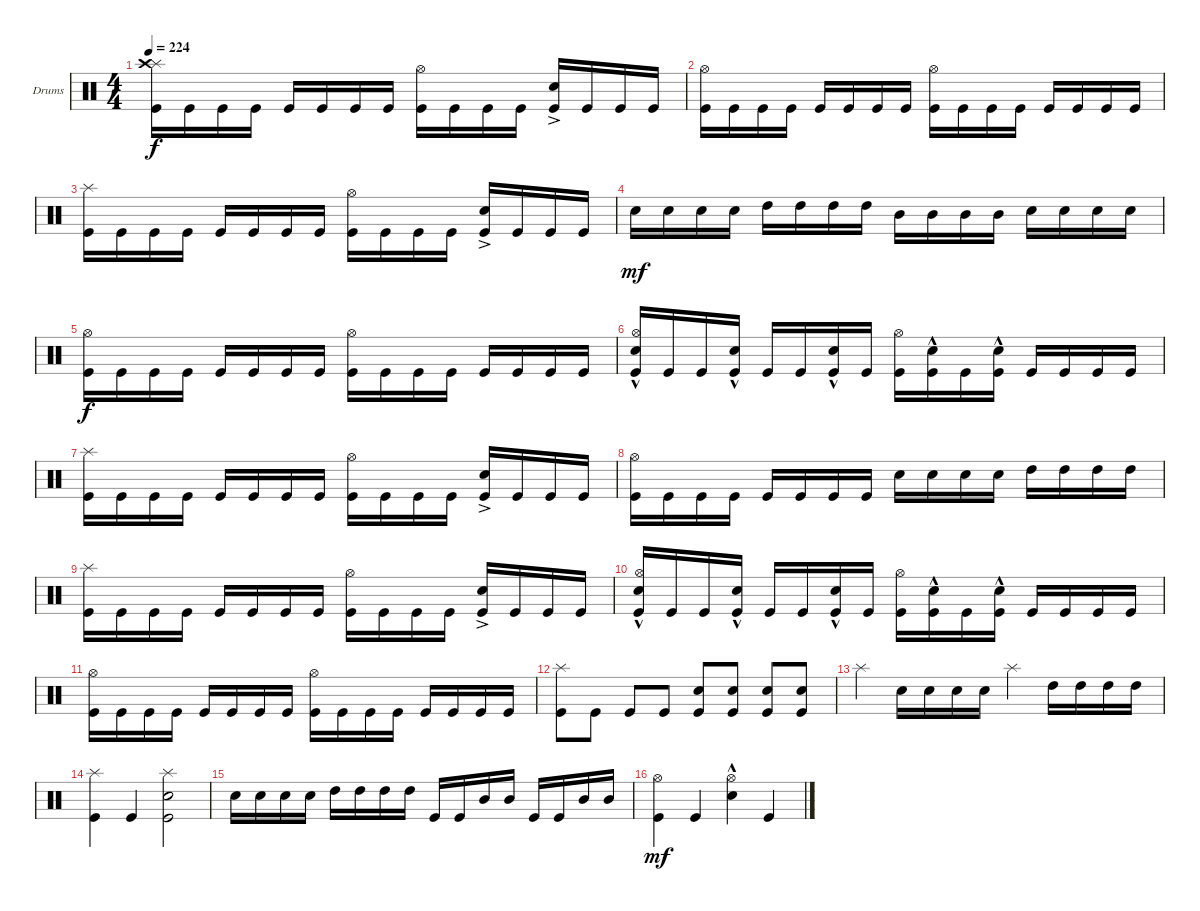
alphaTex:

\defaultSystemsLayout 4
\bracketExtendMode groupsimilarinstruments
\firstSystemTrackNameOrientation horizontal
\otherSystemsTrackNameOrientation horizontal
\track ("Drumkit" "Drums") {instrument percussion}
\staff {score}
\articulation defaults
\ts (4 4)
\tempo 224
\clef neutral
\scale
0.333333
\ks c
("Splash (hit)" "Crash high (hit)" "Kick (hit)").16{dy f} "Kick (hit)".16 "Kick (hit)".16 "Kick (hit)".16 "Kick (hit)".16 "Kick (hit)".16 "Kick (hit)".16 "Kick (hit)".16 ("Kick (hit)" "Hi-Hat (open)").16 "Kick (hit)".16 "Kick (hit)".16 "Kick (hit)".16 ("Kick (hit)" "Snare (hit) 2"{ac}).16 "Kick (hit)".16 "Kick (hit)".16 "Kick (hit)".16 |
\scale
0.333333 ("Hi-Hat (open)" "Kick (hit)").16 "Kick (hit)".16 "Kick (hit)".16 "Kick (hit)".16 "Kick (hit)".16 "Kick (hit)".16 "Kick (hit)".16 "Kick (hit)".16 ("Kick (hit)" "Hi-Hat (open)").16 "Kick (hit)".16 "Kick (hit)".16 "Kick (hit)".16 "Kick (hit)".16 "Kick (hit)".16 "Kick (hit)".16 "Kick (hit)".16 |
\scale
0.333333 ("Splash (hit)" "Kick (hit)").16 "Kick (hit)".16 "Kick (hit)".16 "Kick (hit)".16 "Kick (hit)".16 "Kick (hit)".16 "Kick (hit)".16 "Kick (hit)".16 ("Kick (hit)" "Hi-Hat (open)").16 "Kick (hit)".16 "Kick (hit)".16 "Kick (hit)".16 ("Kick (hit)" "Snare (hit) 2"{ac}).16 "Kick (hit)".16 "Kick (hit)".16 "Kick (hit)".16 |
\scale
0.333333 "Snare (hit) 2".16{dy mf} "Snare (hit) 2".16 "Snare (hit) 2".16 "Snare (hit) 2".16 "High Tom (hit)".16 "High Tom (hit)".16 "High Tom (hit)".16 "High Tom (hit)".16 "Mid Tom (hit)".16 "Mid Tom (hit)".16 "Mid Tom (hit)".16 "Mid Tom (hit)".16 "Snare (hit) 2".16 "Snare (hit) 2".16 "Snare (hit) 2".16 "Snare (hit) 2".16 |
\scale
0.333333 ("Hi-Hat (open)" "Kick (hit)").16{dy f} "Kick (hit)".16 "Kick (hit)".16 "Kick (hit)".16 "Kick (hit)".16 "Kick (hit)".16 "Kick (hit)".16 "Kick (hit)".16 ("Kick (hit)" "Hi-Hat (open)").16 "Kick (hit)".16 "Kick (hit)".16 "Kick (hit)".16 "Kick (hit)".16 "Kick (hit)".16 "Kick (hit)".16 "Kick (hit)".16 |
\scale
0.333333 ("Hi-Hat (open)" "Kick (hit)" "Snare (hit) 2"{hac}).16 "Kick (hit)".16 "Kick (hit)".16 ("Kick (hit)" "Snare (hit) 2"{hac}).16 "Kick (hit)".16 "Kick (hit)".16 ("Kick (hit)" "Snare (hit) 2"{hac}).16 "Kick (hit)".16 ("Kick (hit)" "Hi-Hat (open)").16 ("Kick (hit)" "Snare (hit) 2"{hac}).16 "Kick (hit)".16 ("Kick (hit)" "Snare (hit) 2"{hac}).16 "Kick (hit)".16 "Kick (hit)".16 "Kick (hit)".16 "Kick (hit)".16 |
\scale
0.333333 ("Splash (hit)" "Kick (hit)").16 "Kick (hit)".16 "Kick (hit)".16 "Kick (hit)".16 "Kick (hit)".16 "Kick (hit)".16 "Kick (hit)".16 "Kick (hit)".16 ("Kick (hit)" "Hi-Hat (open)").16 "Kick (hit)".16 "Kick (hit)".16 "Kick (hit)".16 ("Kick (hit)" "Snare (hit) 2"{ac}).16 "Kick (hit)".16 "Kick (hit)".16 "Kick (hit)".16 |
\scale
0.333333 ("Hi-Hat (open)" "Kick (hit)").16 "Kick (hit)".16 "Kick (hit)".16 "Kick (hit)".16 "Kick (hit)".16 "Kick (hit)".16 "Kick (hit)".16 "Kick (hit)".16 "Snare (hit) 2".16 "Snare (hit) 2".16 "Snare (hit) 2".16 "Snare (hit) 2".16 "High Tom (hit)".16 "High Tom (hit)".16 "High Tom (hit)".16 "High Tom (hit)".16 |
\scale
0.333333 ("Splash (hit)" "Kick (hit)").16 "Kick (hit)".16 "Kick (hit)".16 "Kick (hit)".16 "Kick (hit)".16 "Kick (hit)".16 "Kick (hit)".16 "Kick (hit)".16 ("Kick (hit)" "Hi-Hat (open)").16 "Kick (hit)".16 "Kick (hit)".16 "Kick (hit)".16 ("Kick (hit)" "Snare (hit) 2"{ac}).16 "Kick (hit)".16 "Kick (hit)".16 "Kick (hit)".16 |
\scale
0.333333 ("Hi-Hat (open)" "Kick (hit)" "Snare (hit) 2"{hac}).16 "Kick (hit)".16 "Kick (hit)".16 ("Kick (hit)" "Snare (hit) 2"{hac}).16 "Kick (hit)".16 "Kick (hit)".16 ("Kick (hit)" "Snare (hit) 2"{hac}).16 "Kick (hit)".16 ("Kick (hit)" "Hi-Hat (open)").16 ("Kick (hit)" "Snare (hit) 2"{hac}).16 "Kick (hit)".16 ("Kick (hit)" "Snare (hit) 2"{hac}).16 "Kick (hit)".16 "Kick (hit)".16 "Kick (hit)".16 "Kick (hit)".16 |
\scale
0.333333 ("Hi-Hat (open)" "Kick (hit)").16 "Kick (hit)".16 "Kick (hit)".16 "Kick (hit)".16 "Kick (hit)".16 "Kick (hit)".16 "Kick (hit)".16 "Kick (hit)".16 ("Kick (hit)" "Hi-Hat (open)").16 "Kick (hit)".16 "Kick (hit)".16 "Kick (hit)".16 "Kick (hit)".16 "Kick (hit)".16 "Kick (hit)".16 "Kick (hit)".16 |
\scale
0.333333 ("Kick (hit)" "Splash (hit)").8 "Kick (hit)".8 "Kick (hit)".8 "Kick (hit)".8 ("Kick (hit)" "Snare (hit) 2").8 ("Kick (hit)" "Snare (hit) 2").8 ("Kick (hit)" "Snare (hit) 2").8 ("Kick (hit)" "Snare (hit) 2").8 |
\scale
0.333333 "Splash (hit)".4 "Snare (hit) 2".16 "Snare (hit) 2".16 "Snare (hit) 2".16 "Snare (hit) 2".16 "Splash (hit)".4 "High Tom (hit)".16 "High Tom (hit)".16 "High Tom (hit)".16 "High Tom (hit)".16 |
\scale
0.333333 ("Splash (hit)" "Kick (hit)").4 "Kick (hit)".4 ("Kick (hit)" "Snare (hit) 2" "Splash (hit)").2 |
\scale
0.333333 "Snare (hit) 2".16 "Snare (hit) 2".16 "Snare (hit) 2".16 "Snare (hit) 2".16 "High Tom (hit)".16 "High Tom (hit)".16 "High Tom (hit)".16 "High Tom (hit)".16 "Kick (hit)".16 "Kick (hit)".16 "Mid Tom (hit)".16 "Mid Tom (hit)".16 "Kick (hit)".16 "Kick (hit)".16 "Mid Tom (hit)".16 "Mid Tom (hit)".16 |
\scale
0.333333 ("Kick (hit)" "Hi-Hat (open)").4{dy mf} "Kick (hit)".4 ("Snare (hit) 2"{hac} "Hi-Hat (open)").4 "Kick (hit)".4
